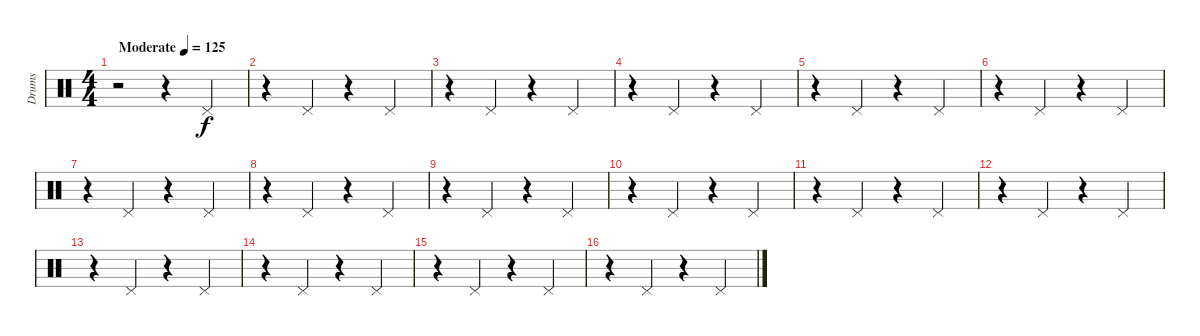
\track ("Drums" "Drums") {instrument percussion}
\staff {score}
\articulation defaults
\ts (4 4)
\tempo (125 "Moderate")
\clef neutral
\ks c
r.2{dy f} r.4 "Pedal Hi-Hat (hit)".4 |
r.4 "Pedal Hi-Hat (hit)".4 r.4 "Pedal Hi-Hat (hit)".4 |
r.4 "Pedal Hi-Hat (hit)".4 r.4 "Pedal Hi-Hat (hit)".4 |
r.4 "Pedal Hi-Hat (hit)".4 r.4 "Pedal Hi-Hat (hit)".4 |
r.4 "Pedal Hi-Hat (hit)".4 r.4 "Pedal Hi-Hat (hit)".4 |
r.4 "Pedal Hi-Hat (hit)".4 r.4 "Pedal Hi-Hat (hit)".4 |
r.4 "Pedal Hi-Hat (hit)".4 r.4 "Pedal Hi-Hat (hit)".4 |
r.4 "Pedal Hi-Hat (hit)".4 r.4 "Pedal Hi-Hat (hit)".4 |
r.4 "Pedal Hi-Hat (hit)".4 r.4 "Pedal Hi-Hat (hit)".4 |
r.4 "Pedal Hi-Hat (hit)".4 r.4 "Pedal Hi-Hat (hit)".4 |
r.4 "Pedal Hi-Hat (hit)".4 r.4 "Pedal Hi-Hat (hit)".4 |
r.4 "Pedal Hi-Hat (hit)".4 r.4 "Pedal Hi-Hat (hit)".4 |
r.4 "Pedal Hi-Hat (hit)".4 r.4 "Pedal Hi-Hat (hit)".4 |
r.4 "Pedal Hi-Hat (hit)".4 r.4 "Pedal Hi-Hat (hit)".4 |
r.4 "Pedal Hi-Hat (hit)".4 r.4 "Pedal Hi-Hat (hit)".4 |
r.4 "Pedal Hi-Hat (hit)".4 r.4 "Pedal Hi-Hat (hit)".4
